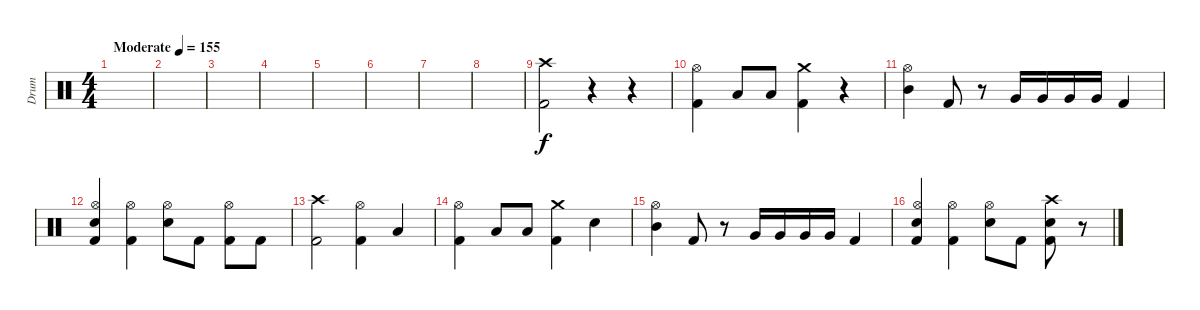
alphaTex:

\track ("Drum" "Drum") {instrument percussion}
\staff {score}
\articulation defaults
\ts (4 4)
\tempo (155 "Moderate")
\clef neutral
\ks c
|
|
|
|
|
|
|
|
("Crash high (hit)" "Kick (hit) 2").2 r.4 r.4 |
("Hi-Hat (open)" "Kick (hit) 2").4 "Low Tom (hit)".8 "Low Tom (hit)".8 ("Crash medium (hit)" "Kick (hit) 2").4 r.4 |
("Hi-Hat (open)" "Mid Tom (hit)").4 "Kick (hit) 2".8 r.8 "Very Low Tom (hit)".16 "Very Low Tom (hit)".16 "Very Low Tom (hit)".16 "Very Low Tom (hit)".16 "Kick (hit) 2".4 |
("Hi-Hat (open)" "Snare (hit) 2" "Kick (hit) 2").4 ("Hi-Hat (open)" "Kick (hit) 2").4 ("Hi-Hat (open)" "Snare (hit) 2").8 "Kick (hit) 2".8 ("Hi-Hat (open)" "Kick (hit) 2").8 "Kick (hit) 2".8 |
("Crash high (hit)" "Kick (hit) 2").2 ("Hi-Hat (open)" "Kick (hit) 2").4 "Low Tom (hit)".4 |
("Hi-Hat (open)" "Kick (hit) 2").4 "Low Tom (hit)".8 "Low Tom (hit)".8 ("Crash medium (hit)" "Kick (hit) 2").4 "Snare (hit) 2".4 |
("Hi-Hat (open)" "Mid Tom (hit)").4 "Kick (hit) 2".8 r.8 "Very Low Tom (hit)".16 "Very Low Tom (hit)".16 "Very Low Tom (hit)".16 "Very Low Tom (hit)".16 "Kick (hit) 2".4 |
("Hi-Hat (open)" "Snare (hit) 2" "Kick (hit) 2").4 ("Hi-Hat (open)" "Kick (hit) 2").4 ("Hi-Hat (open)" "Snare (hit) 2").8 "Kick (hit) 2".8 ("Crash high (hit)" "Snare (hit) 2" "Kick (hit) 2").8 r.8
